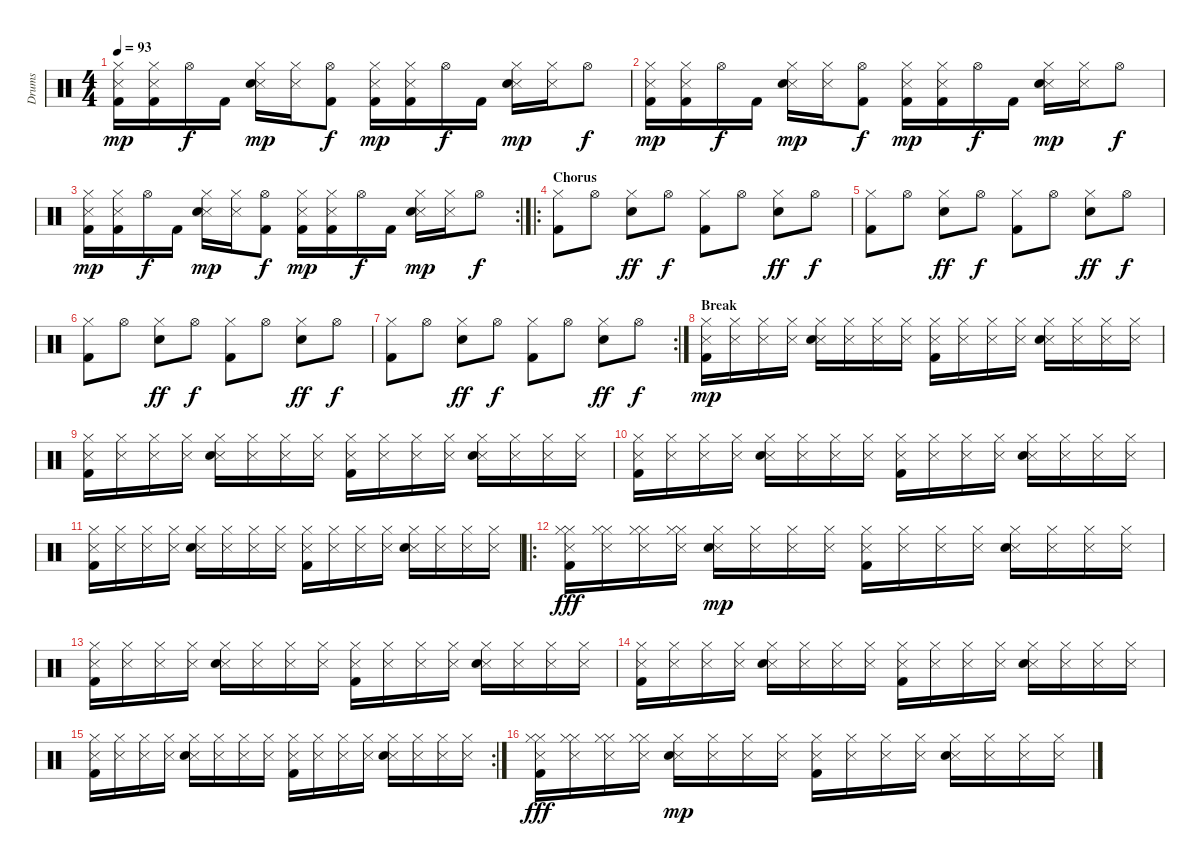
\track ("Drums" "Drums") {instrument percussion}
\staff {score}
\articulation defaults
\ts (4 4)
\tempo 93
\clef neutral
\ks c
("Metronome (hit)" "Hi-Hat (closed)" "Kick (hit) 2").16{dy mp} ("Metronome (hit)" "Hi-Hat (closed)" "Kick (hit) 2").16 "Hi-Hat (open)".16{dy f} "Kick (hit) 2".16 ("Metronome (hit)" "Hi-Hat (closed)" "Snare (hit) 2").16{dy mp} ("Metronome (hit)" "Hi-Hat (closed)").16 ("Hi-Hat (open)" "Kick (hit) 2").8{dy f} ("Metronome (hit)" "Hi-Hat (closed)" "Kick (hit) 2").16{dy mp} ("Metronome (hit)" "Hi-Hat (closed)" "Kick (hit) 2").16 "Hi-Hat (open)".16{dy f} "Kick (hit) 2".16 ("Metronome (hit)" "Hi-Hat (closed)" "Snare (hit) 2").16{dy mp} ("Metronome (hit)" "Hi-Hat (closed)").16 "Hi-Hat (open)".8{dy f} |
("Metronome (hit)" "Hi-Hat (closed)" "Kick (hit) 2").16{dy mp} ("Metronome (hit)" "Hi-Hat (closed)" "Kick (hit) 2").16 "Hi-Hat (open)".16{dy f} "Kick (hit) 2".16 ("Metronome (hit)" "Hi-Hat (closed)" "Snare (hit) 2").16{dy mp} ("Metronome (hit)" "Hi-Hat (closed)").16 ("Hi-Hat (open)" "Kick (hit) 2").8{dy f} ("Metronome (hit)" "Hi-Hat (closed)" "Kick (hit) 2").16{dy mp} ("Metronome (hit)" "Hi-Hat (closed)" "Kick (hit) 2").16 "Hi-Hat (open)".16{dy f} "Kick (hit) 2".16 ("Metronome (hit)" "Hi-Hat (closed)" "Snare (hit) 2").16{dy mp} ("Metronome (hit)" "Hi-Hat (closed)").16 "Hi-Hat (open)".8{dy f} |
\rc 2
("Metronome (hit)" "Hi-Hat (closed)" "Kick (hit) 2").16{dy mp} ("Metronome (hit)" "Hi-Hat (closed)" "Kick (hit) 2").16 "Hi-Hat (open)".16{dy f} "Kick (hit) 2".16 ("Metronome (hit)" "Hi-Hat (closed)" "Snare (hit) 2").16{dy mp} ("Metronome (hit)" "Hi-Hat (closed)").16 ("Hi-Hat (open)" "Kick (hit) 2").8{dy f} ("Metronome (hit)" "Hi-Hat (closed)" "Kick (hit) 2").16{dy mp} ("Metronome (hit)" "Hi-Hat (closed)" "Kick (hit) 2").16 "Hi-Hat (open)".16{dy f} "Kick (hit) 2".16 ("Metronome (hit)" "Hi-Hat (closed)" "Snare (hit) 2").16{dy mp} ("Metronome (hit)" "Hi-Hat (closed)").16 "Hi-Hat (open)".8{dy f} |
\ro
\section ("" "Chorus")
("Hi-Hat (closed)" "Kick (hit) 2").8 "Hi-Hat (open)".8 ("Hi-Hat (closed)" "Electric Snare (hit)").8{dy ff} "Hi-Hat (open)".8{dy f} ("Hi-Hat (closed)" "Kick (hit) 2").8 "Hi-Hat (open)".8 ("Hi-Hat (closed)" "Electric Snare (hit)").8{dy ff} "Hi-Hat (open)".8{dy f} |
("Hi-Hat (closed)" "Kick (hit) 2").8 "Hi-Hat (open)".8 ("Hi-Hat (closed)" "Electric Snare (hit)").8{dy ff} "Hi-Hat (open)".8{dy f} ("Hi-Hat (closed)" "Kick (hit) 2").8 "Hi-Hat (open)".8 ("Hi-Hat (closed)" "Electric Snare (hit)").8{dy ff} "Hi-Hat (open)".8{dy f} |
("Hi-Hat (closed)" "Kick (hit) 2").8 "Hi-Hat (open)".8 ("Hi-Hat (closed)" "Electric Snare (hit)").8{dy ff} "Hi-Hat (open)".8{dy f} ("Hi-Hat (closed)" "Kick (hit) 2").8 "Hi-Hat (open)".8 ("Hi-Hat (closed)" "Electric Snare (hit)").8{dy ff} "Hi-Hat (open)".8{dy f} |
\rc 2
("Hi-Hat (closed)" "Kick (hit) 2").8 "Hi-Hat (open)".8 ("Hi-Hat (closed)" "Electric Snare (hit)").8{dy ff} "Hi-Hat (open)".8{dy f} ("Hi-Hat (closed)" "Kick (hit) 2").8 "Hi-Hat (open)".8 ("Hi-Hat (closed)" "Electric Snare (hit)").8{dy ff} "Hi-Hat (open)".8{dy f} |
\section ("" "Break")
("Metronome (hit)" "Hi-Hat (closed)" "Kick (hit) 2").16{dy mp} ("Metronome (hit)" "Hi-Hat (closed)").16 ("Metronome (hit)" "Hi-Hat (closed)").16 ("Metronome (hit)" "Hi-Hat (closed)").16 ("Metronome (hit)" "Hi-Hat (closed)" "Snare (hit) 2").16 ("Metronome (hit)" "Hi-Hat (closed)").16 ("Metronome (hit)" "Hi-Hat (closed)").16 ("Metronome (hit)" "Hi-Hat (closed)").16 ("Metronome (hit)" "Hi-Hat (closed)" "Kick (hit) 2").16 ("Metronome (hit)" "Hi-Hat (closed)").16 ("Metronome (hit)" "Hi-Hat (closed)").16 ("Metronome (hit)" "Hi-Hat (closed)").16 ("Metronome (hit)" "Hi-Hat (closed)" "Snare (hit) 2").16 ("Metronome (hit)" "Hi-Hat (closed)").16 ("Metronome (hit)" "Hi-Hat (closed)").16 ("Metronome (hit)" "Hi-Hat (closed)").16 |
("Metronome (hit)" "Hi-Hat (closed)" "Kick (hit) 2").16 ("Metronome (hit)" "Hi-Hat (closed)").16 ("Metronome (hit)" "Hi-Hat (closed)").16 ("Metronome (hit)" "Hi-Hat (closed)").16 ("Metronome (hit)" "Hi-Hat (closed)" "Snare (hit) 2").16 ("Metronome (hit)" "Hi-Hat (closed)").16 ("Metronome (hit)" "Hi-Hat (closed)").16 ("Metronome (hit)" "Hi-Hat (closed)").16 ("Metronome (hit)" "Hi-Hat (closed)" "Kick (hit) 2").16 ("Metronome (hit)" "Hi-Hat (closed)").16 ("Metronome (hit)" "Hi-Hat (closed)").16 ("Metronome (hit)" "Hi-Hat (closed)").16 ("Metronome (hit)" "Hi-Hat (closed)" "Snare (hit) 2").16 ("Metronome (hit)" "Hi-Hat (closed)").16 ("Metronome (hit)" "Hi-Hat (closed)").16 ("Metronome (hit)" "Hi-Hat (closed)").16 |
("Metronome (hit)" "Hi-Hat (closed)" "Kick (hit) 2").16 ("Metronome (hit)" "Hi-Hat (closed)").16 ("Metronome (hit)" "Hi-Hat (closed)").16 ("Metronome (hit)" "Hi-Hat (closed)").16 ("Metronome (hit)" "Hi-Hat (closed)" "Snare (hit) 2").16 ("Metronome (hit)" "Hi-Hat (closed)").16 ("Metronome (hit)" "Hi-Hat (closed)").16 ("Metronome (hit)" "Hi-Hat (closed)").16 ("Metronome (hit)" "Hi-Hat (closed)" "Kick (hit) 2").16 ("Metronome (hit)" "Hi-Hat (closed)").16 ("Metronome (hit)" "Hi-Hat (closed)").16 ("Metronome (hit)" "Hi-Hat (closed)").16 ("Metronome (hit)" "Hi-Hat (closed)" "Snare (hit) 2").16 ("Metronome (hit)" "Hi-Hat (closed)").16 ("Metronome (hit)" "Hi-Hat (closed)").16 ("Metronome (hit)" "Hi-Hat (closed)").16 |
("Metronome (hit)" "Hi-Hat (closed)" "Kick (hit) 2").16 ("Metronome (hit)" "Hi-Hat (closed)").16 ("Metronome (hit)" "Hi-Hat (closed)").16 ("Metronome (hit)" "Hi-Hat (closed)").16 ("Metronome (hit)" "Hi-Hat (closed)" "Snare (hit) 2").16 ("Metronome (hit)" "Hi-Hat (closed)").16 ("Metronome (hit)" "Hi-Hat (closed)").16 ("Metronome (hit)" "Hi-Hat (closed)").16 ("Metronome (hit)" "Hi-Hat (closed)" "Kick (hit) 2").16 ("Metronome (hit)" "Hi-Hat (closed)").16 ("Metronome (hit)" "Hi-Hat (closed)").16 ("Metronome (hit)" "Hi-Hat (closed)").16 ("Metronome (hit)" "Hi-Hat (closed)" "Snare (hit) 2").16 ("Metronome (hit)" "Hi-Hat (closed)").16 ("Metronome (hit)" "Hi-Hat (closed)").16 ("Metronome (hit)" "Hi-Hat (closed)").16 |
\ro
("Metronome (hit)" "Hi-Hat (closed)" "Hi-Hat (closed)" "Kick (hit) 2").16{dy fff} ("Metronome (hit)" "Hi-Hat (closed)" "Hi-Hat (closed)").16 ("Metronome (hit)" "Hi-Hat (closed)" "Hi-Hat (closed)").16 ("Metronome (hit)" "Hi-Hat (closed)" "Hi-Hat (closed)").16 ("Metronome (hit)" "Hi-Hat (closed)" "Snare (hit) 2").16{dy mp} ("Metronome (hit)" "Hi-Hat (closed)").16 ("Metronome (hit)" "Hi-Hat (closed)").16 ("Metronome (hit)" "Hi-Hat (closed)").16 ("Metronome (hit)" "Hi-Hat (closed)" "Kick (hit) 2").16 ("Metronome (hit)" "Hi-Hat (closed)").16 ("Metronome (hit)" "Hi-Hat (closed)").16 ("Metronome (hit)" "Hi-Hat (closed)").16 ("Metronome (hit)" "Hi-Hat (closed)" "Snare (hit) 2").16 ("Metronome (hit)" "Hi-Hat (closed)").16 ("Metronome (hit)" "Hi-Hat (closed)").16 ("Metronome (hit)" "Hi-Hat (closed)").16 |
("Metronome (hit)" "Hi-Hat (closed)" "Kick (hit) 2").16 ("Metronome (hit)" "Hi-Hat (closed)").16 ("Metronome (hit)" "Hi-Hat (closed)").16 ("Metronome (hit)" "Hi-Hat (closed)").16 ("Metronome (hit)" "Hi-Hat (closed)" "Snare (hit) 2").16 ("Metronome (hit)" "Hi-Hat (closed)").16 ("Metronome (hit)" "Hi-Hat (closed)").16 ("Metronome (hit)" "Hi-Hat (closed)").16 ("Metronome (hit)" "Hi-Hat (closed)" "Kick (hit) 2").16 ("Metronome (hit)" "Hi-Hat (closed)").16 ("Metronome (hit)" "Hi-Hat (closed)").16 ("Metronome (hit)" "Hi-Hat (closed)").16 ("Metronome (hit)" "Hi-Hat (closed)" "Snare (hit) 2").16 ("Metronome (hit)" "Hi-Hat (closed)").16 ("Metronome (hit)" "Hi-Hat (closed)").16 ("Metronome (hit)" "Hi-Hat (closed)").16 |
("Metronome (hit)" "Hi-Hat (closed)" "Kick (hit) 2").16 ("Metronome (hit)" "Hi-Hat (closed)").16 ("Metronome (hit)" "Hi-Hat (closed)").16 ("Metronome (hit)" "Hi-Hat (closed)").16 ("Metronome (hit)" "Hi-Hat (closed)" "Snare (hit) 2").16 ("Metronome (hit)" "Hi-Hat (closed)").16 ("Metronome (hit)" "Hi-Hat (closed)").16 ("Metronome (hit)" "Hi-Hat (closed)").16 ("Metronome (hit)" "Hi-Hat (closed)" "Kick (hit) 2").16 ("Metronome (hit)" "Hi-Hat (closed)").16 ("Metronome (hit)" "Hi-Hat (closed)").16 ("Metronome (hit)" "Hi-Hat (closed)").16 ("Metronome (hit)" "Hi-Hat (closed)" "Snare (hit) 2").16 ("Metronome (hit)" "Hi-Hat (closed)").16 ("Metronome (hit)" "Hi-Hat (closed)").16 ("Metronome (hit)" "Hi-Hat (closed)").16 |
\rc 2
("Metronome (hit)" "Hi-Hat (closed)" "Kick (hit) 2").16 ("Metronome (hit)" "Hi-Hat (closed)").16 ("Metronome (hit)" "Hi-Hat (closed)").16 ("Metronome (hit)" "Hi-Hat (closed)").16 ("Metronome (hit)" "Hi-Hat (closed)" "Snare (hit) 2").16 ("Metronome (hit)" "Hi-Hat (closed)").16 ("Metronome (hit)" "Hi-Hat (closed)").16 ("Metronome (hit)" "Hi-Hat (closed)").16 ("Metronome (hit)" "Hi-Hat (closed)" "Kick (hit) 2").16 ("Metronome (hit)" "Hi-Hat (closed)").16 ("Metronome (hit)" "Hi-Hat (closed)").16 ("Metronome (hit)" "Hi-Hat (closed)").16 ("Metronome (hit)" "Hi-Hat (closed)" "Snare (hit) 2").16 ("Metronome (hit)" "Hi-Hat (closed)").16 ("Metronome (hit)" "Hi-Hat (closed)").16 ("Metronome (hit)" "Hi-Hat (closed)").16 |
("Metronome (hit)" "Hi-Hat (closed)" "Hi-Hat (closed)" "Kick (hit) 2").16{dy fff} ("Metronome (hit)" "Hi-Hat (closed)" "Hi-Hat (closed)").16 ("Metronome (hit)" "Hi-Hat (closed)" "Hi-Hat (closed)").16 ("Metronome (hit)" "Hi-Hat (closed)" "Hi-Hat (closed)").16 ("Metronome (hit)" "Hi-Hat (closed)" "Snare (hit) 2").16{dy mp} ("Metronome (hit)" "Hi-Hat (closed)").16 ("Metronome (hit)" "Hi-Hat (closed)").16 ("Metronome (hit)" "Hi-Hat (closed)").16 ("Metronome (hit)" "Hi-Hat (closed)" "Kick (hit) 2").16 ("Metronome (hit)" "Hi-Hat (closed)").16 ("Metronome (hit)" "Hi-Hat (closed)").16 ("Metronome (hit)" "Hi-Hat (closed)").16 ("Metronome (hit)" "Hi-Hat (closed)" "Snare (hit) 2").16 ("Metronome (hit)" "Hi-Hat (closed)").16 ("Metronome (hit)" "Hi-Hat (closed)").16 ("Metronome (hit)" "Hi-Hat (closed)").16
